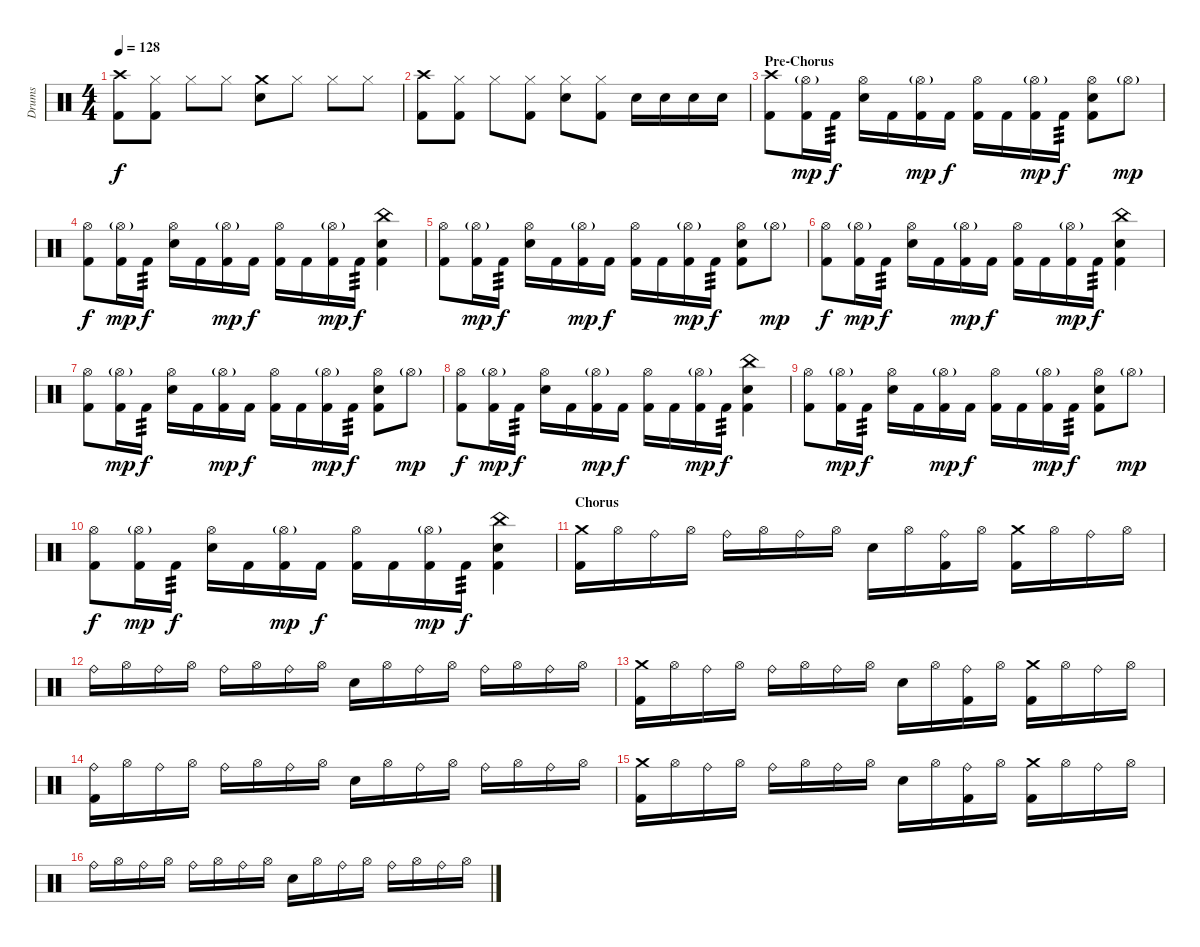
\track ("Drums" "Drums") {instrument percussion}
\staff {score}
\articulation defaults
\ts (4 4)
\tempo 128
\clef neutral
\ks c
("Crash high (hit)" "Kick (hit) 2").8{dy f} ("Hi-Hat (closed)" "Kick (hit) 2").8 "Hi-Hat (closed)".8 "Hi-Hat (closed)".8 ("Crash medium (hit)" "Snare (hit) 2").8 "Hi-Hat (closed)".8 "Hi-Hat (closed)".8 "Hi-Hat (closed)".8 |
("Crash high (hit)" "Kick (hit) 2").8 ("Hi-Hat (closed)" "Kick (hit) 2").8 "Hi-Hat (closed)".8 ("Hi-Hat (closed)" "Kick (hit) 2").8 ("Hi-Hat (closed)" "Snare (hit) 2").8 ("Hi-Hat (closed)" "Kick (hit) 2").8 "Snare (hit) 2".16 "Snare (hit) 2".16 "Snare (hit) 2".16 "Snare (hit) 2".16 |
\section ("" "Pre-Chorus")
("Crash high (hit)" "Kick (hit) 2").8 ("Hi-Hat (open)"{g} "Kick (hit) 2").16{dy mp} "Kick (hit) 2".16{tp 3 dy f} ("Hi-Hat (open)" "Snare (hit) 2").16 "Kick (hit) 2".16 ("Hi-Hat (open)"{g} "Kick (hit) 2").16{dy mp} "Kick (hit) 2".16{dy f} ("Hi-Hat (open)" "Kick (hit) 2").16 "Kick (hit) 2".16 ("Hi-Hat (open)"{g} "Kick (hit) 2").16{dy mp} "Kick (hit) 2".16{tp 3 dy f} ("Hi-Hat (open)" "Snare (hit) 2" "Kick (hit) 2").8 "Hi-Hat (open)"{g}.8{dy mp} |
("Hi-Hat (open)" "Kick (hit) 2").8{dy f} ("Hi-Hat (open)"{g} "Kick (hit) 2").16{dy mp} "Kick (hit) 2".16{tp 3 dy f} ("Hi-Hat (open)" "Snare (hit) 2").16 "Kick (hit) 2".16 ("Hi-Hat (open)"{g} "Kick (hit) 2").16{dy mp} "Kick (hit) 2".16{dy f} ("Hi-Hat (open)" "Kick (hit) 2").16 "Kick (hit) 2".16 ("Hi-Hat (open)"{g} "Kick (hit) 2").16{dy mp} "Kick (hit) 2".16{tp 3 dy f} ("China (hit)" "Snare (hit) 2" "Kick (hit) 2").4 |
("Hi-Hat (open)" "Kick (hit) 2").8 ("Hi-Hat (open)"{g} "Kick (hit) 2").16{dy mp} "Kick (hit) 2".16{tp 3 dy f} ("Hi-Hat (open)" "Snare (hit) 2").16 "Kick (hit) 2".16 ("Hi-Hat (open)"{g} "Kick (hit) 2").16{dy mp} "Kick (hit) 2".16{dy f} ("Hi-Hat (open)" "Kick (hit) 2").16 "Kick (hit) 2".16 ("Hi-Hat (open)"{g} "Kick (hit) 2").16{dy mp} "Kick (hit) 2".16{tp 3 dy f} ("Hi-Hat (open)" "Snare (hit) 2" "Kick (hit) 2").8 "Hi-Hat (open)"{g}.8{dy mp} |
("Hi-Hat (open)" "Kick (hit) 2").8{dy f} ("Hi-Hat (open)"{g} "Kick (hit) 2").16{dy mp} "Kick (hit) 2".16{tp 3 dy f} ("Hi-Hat (open)" "Snare (hit) 2").16 "Kick (hit) 2".16 ("Hi-Hat (open)"{g} "Kick (hit) 2").16{dy mp} "Kick (hit) 2".16{dy f} ("Hi-Hat (open)" "Kick (hit) 2").16 "Kick (hit) 2".16 ("Hi-Hat (open)"{g} "Kick (hit) 2").16{dy mp} "Kick (hit) 2".16{tp 3 dy f} ("China (hit)" "Snare (hit) 2" "Kick (hit) 2").4 |
("Hi-Hat (open)" "Kick (hit) 2").8 ("Hi-Hat (open)"{g} "Kick (hit) 2").16{dy mp} "Kick (hit) 2".16{tp 3 dy f} ("Hi-Hat (open)" "Snare (hit) 2").16 "Kick (hit) 2".16 ("Hi-Hat (open)"{g} "Kick (hit) 2").16{dy mp} "Kick (hit) 2".16{dy f} ("Hi-Hat (open)" "Kick (hit) 2").16 "Kick (hit) 2".16 ("Hi-Hat (open)"{g} "Kick (hit) 2").16{dy mp} "Kick (hit) 2".16{tp 3 dy f} ("Hi-Hat (open)" "Snare (hit) 2" "Kick (hit) 2").8 "Hi-Hat (open)"{g}.8{dy mp} |
("Hi-Hat (open)" "Kick (hit) 2").8{dy f} ("Hi-Hat (open)"{g} "Kick (hit) 2").16{dy mp} "Kick (hit) 2".16{tp 3 dy f} ("Hi-Hat (open)" "Snare (hit) 2").16 "Kick (hit) 2".16 ("Hi-Hat (open)"{g} "Kick (hit) 2").16{dy mp} "Kick (hit) 2".16{dy f} ("Hi-Hat (open)" "Kick (hit) 2").16 "Kick (hit) 2".16 ("Hi-Hat (open)"{g} "Kick (hit) 2").16{dy mp} "Kick (hit) 2".16{tp 3 dy f} ("China (hit)" "Snare (hit) 2" "Kick (hit) 2").4 |
("Hi-Hat (open)" "Kick (hit) 2").8 ("Hi-Hat (open)"{g} "Kick (hit) 2").16{dy mp} "Kick (hit) 2".16{tp 3 dy f} ("Hi-Hat (open)" "Snare (hit) 2").16 "Kick (hit) 2".16 ("Hi-Hat (open)"{g} "Kick (hit) 2").16{dy mp} "Kick (hit) 2".16{dy f} ("Hi-Hat (open)" "Kick (hit) 2").16 "Kick (hit) 2".16 ("Hi-Hat (open)"{g} "Kick (hit) 2").16{dy mp} "Kick (hit) 2".16{tp 3 dy f} ("Hi-Hat (open)" "Snare (hit) 2" "Kick (hit) 2").8 "Hi-Hat (open)"{g}.8{dy mp} |
("Hi-Hat (open)" "Kick (hit) 2").8{dy f} ("Hi-Hat (open)"{g} "Kick (hit) 2").16{dy mp} "Kick (hit) 2".16{tp 3 dy f} ("Hi-Hat (open)" "Snare (hit) 2").16 "Kick (hit) 2".16 ("Hi-Hat (open)"{g} "Kick (hit) 2").16{dy mp} "Kick (hit) 2".16{dy f} ("Hi-Hat (open)" "Kick (hit) 2").16 "Kick (hit) 2".16 ("Hi-Hat (open)"{g} "Kick (hit) 2").16{dy mp} "Kick (hit) 2".16{tp 3 dy f} ("China (hit)" "Snare (hit) 2" "Kick (hit) 2").4 |
\section ("" "Chorus")
("Crash medium (hit)" "Kick (hit) 2").16 "Hi-Hat (open)".16 "Ride (bell)".16 "Hi-Hat (open)".16 "Ride (bell)".16 "Hi-Hat (open)".16 "Ride (bell)".16 "Hi-Hat (open)".16 "Snare (hit) 2".16 "Hi-Hat (open)".16 ("Ride (bell)" "Kick (hit) 2").16 "Hi-Hat (open)".16 ("Crash medium (hit)" "Kick (hit) 2").16 "Hi-Hat (open)".16 "Ride (bell)".16 "Hi-Hat (open)".16 |
"Ride (bell)".16 "Hi-Hat (open)".16 "Ride (bell)".16 "Hi-Hat (open)".16 "Ride (bell)".16 "Hi-Hat (open)".16 "Ride (bell)".16 "Hi-Hat (open)".16 "Snare (hit) 2".16 "Hi-Hat (open)".16 "Ride (bell)".16 "Hi-Hat (open)".16 "Ride (bell)".16 "Hi-Hat (open)".16 "Ride (bell)".16 "Hi-Hat (open)".16 |
("Crash medium (hit)" "Kick (hit) 2").16 "Hi-Hat (open)".16 "Ride (bell)".16 "Hi-Hat (open)".16 "Ride (bell)".16 "Hi-Hat (open)".16 "Ride (bell)".16 "Hi-Hat (open)".16 "Snare (hit) 2".16 "Hi-Hat (open)".16 ("Ride (bell)" "Kick (hit) 2").16 "Hi-Hat (open)".16 ("Crash medium (hit)" "Kick (hit) 2").16 "Hi-Hat (open)".16 "Ride (bell)".16 "Hi-Hat (open)".16 |
("Ride (bell)" "Kick (hit) 2").16 "Hi-Hat (open)".16 "Ride (bell)".16 "Hi-Hat (open)".16 "Ride (bell)".16 "Hi-Hat (open)".16 "Ride (bell)".16 "Hi-Hat (open)".16 "Snare (hit) 2".16 "Hi-Hat (open)".16 "Ride (bell)".16 "Hi-Hat (open)".16 "Ride (bell)".16 "Hi-Hat (open)".16 "Ride (bell)".16 "Hi-Hat (open)".16 |
("Crash medium (hit)" "Kick (hit) 2").16 "Hi-Hat (open)".16 "Ride (bell)".16 "Hi-Hat (open)".16 "Ride (bell)".16 "Hi-Hat (open)".16 "Ride (bell)".16 "Hi-Hat (open)".16 "Snare (hit) 2".16 "Hi-Hat (open)".16 ("Ride (bell)" "Kick (hit) 2").16 "Hi-Hat (open)".16 ("Crash medium (hit)" "Kick (hit) 2").16 "Hi-Hat (open)".16 "Ride (bell)".16 "Hi-Hat (open)".16 |
"Ride (bell)".16 "Hi-Hat (open)".16 "Ride (bell)".16 "Hi-Hat (open)".16 "Ride (bell)".16 "Hi-Hat (open)".16 "Ride (bell)".16 "Hi-Hat (open)".16 "Snare (hit) 2".16 "Hi-Hat (open)".16 "Ride (bell)".16 "Hi-Hat (open)".16 "Ride (bell)".16 "Hi-Hat (open)".16 "Ride (bell)".16 "Hi-Hat (open)".16
